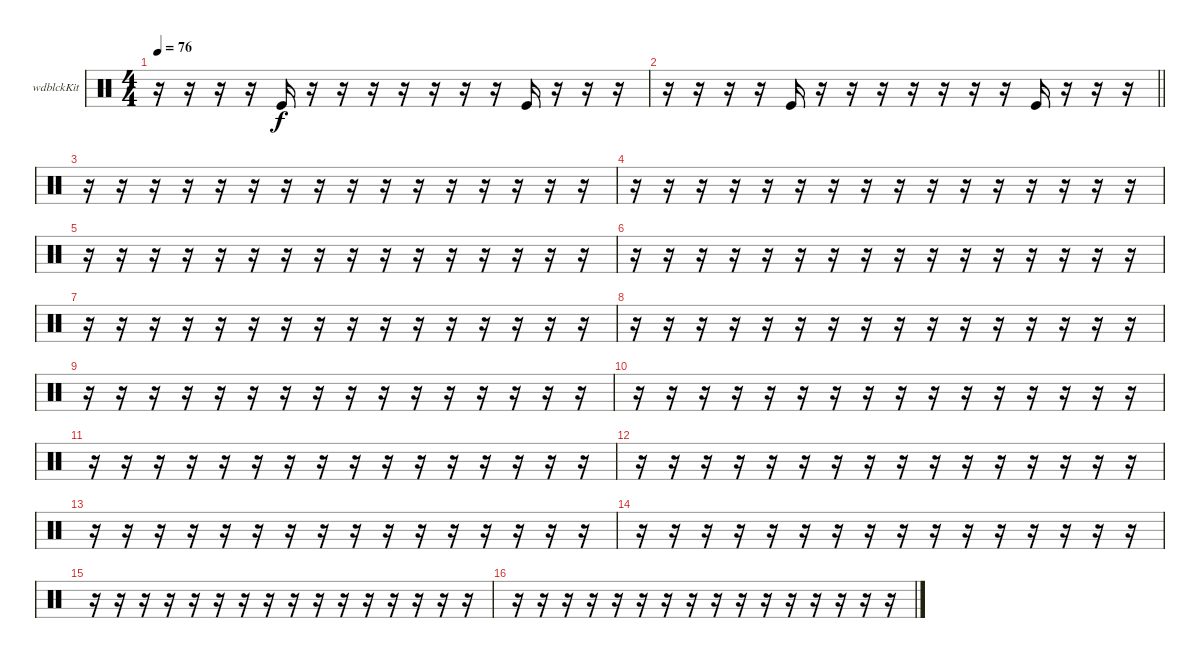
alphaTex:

\bracketExtendMode groupsimilarinstruments
\firstSystemTrackNameOrientation horizontal
\otherSystemsTrackNameOrientation horizontal
\track ("Woodblock" "wdblckKit") {instrument percussion}
\staff {score}
\articulation defaults
\ts (4 4)
\tempo 76
\clef neutral
\ks c
r.16{dy f} r.16 r.16 r.16 "Kick (hit)".16 r.16 r.16 r.16 r.16 r.16 r.16 r.16 "Kick (hit)".16 r.16 r.16 r.16 |
\barLineRight lightlight
r.16 r.16 r.16 r.16 "Kick (hit)".16 r.16 r.16 r.16 r.16 r.16 r.16 r.16 "Kick (hit)".16 r.16 r.16 r.16 |
r.16 r.16 r.16 r.16 r.16 r.16 r.16 r.16 r.16 r.16 r.16 r.16 r.16 r.16 r.16 r.16 |
r.16 r.16 r.16 r.16 r.16 r.16 r.16 r.16 r.16 r.16 r.16 r.16 r.16 r.16 r.16 r.16 |
r.16 r.16 r.16 r.16 r.16 r.16 r.16 r.16 r.16 r.16 r.16 r.16 r.16 r.16 r.16 r.16 |
r.16 r.16 r.16 r.16 r.16 r.16 r.16 r.16 r.16 r.16 r.16 r.16 r.16 r.16 r.16 r.16 |
r.16 r.16 r.16 r.16 r.16 r.16 r.16 r.16 r.16 r.16 r.16 r.16 r.16 r.16 r.16 r.16 |
r.16 r.16 r.16 r.16 r.16 r.16 r.16 r.16 r.16 r.16 r.16 r.16 r.16 r.16 r.16 r.16 |
r.16 r.16 r.16 r.16 r.16 r.16 r.16 r.16 r.16 r.16 r.16 r.16 r.16 r.16 r.16 r.16 |
r.16 r.16 r.16 r.16 r.16 r.16 r.16 r.16 r.16 r.16 r.16 r.16 r.16 r.16 r.16 r.16 |
r.16 r.16 r.16 r.16 r.16 r.16 r.16 r.16 r.16 r.16 r.16 r.16 r.16 r.16 r.16 r.16 |
r.16 r.16 r.16 r.16 r.16 r.16 r.16 r.16 r.16 r.16 r.16 r.16 r.16 r.16 r.16 r.16 |
r.16 r.16 r.16 r.16 r.16 r.16 r.16 r.16 r.16 r.16 r.16 r.16 r.16 r.16 r.16 r.16 |
r.16 r.16 r.16 r.16 r.16 r.16 r.16 r.16 r.16 r.16 r.16 r.16 r.16 r.16 r.16 r.16 |
r.16 r.16 r.16 r.16 r.16 r.16 r.16 r.16 r.16 r.16 r.16 r.16 r.16 r.16 r.16 r.16 |
r.16 r.16 r.16 r.16 r.16 r.16 r.16 r.16 r.16 r.16 r.16 r.16 r.16 r.16 r.16 r.16
